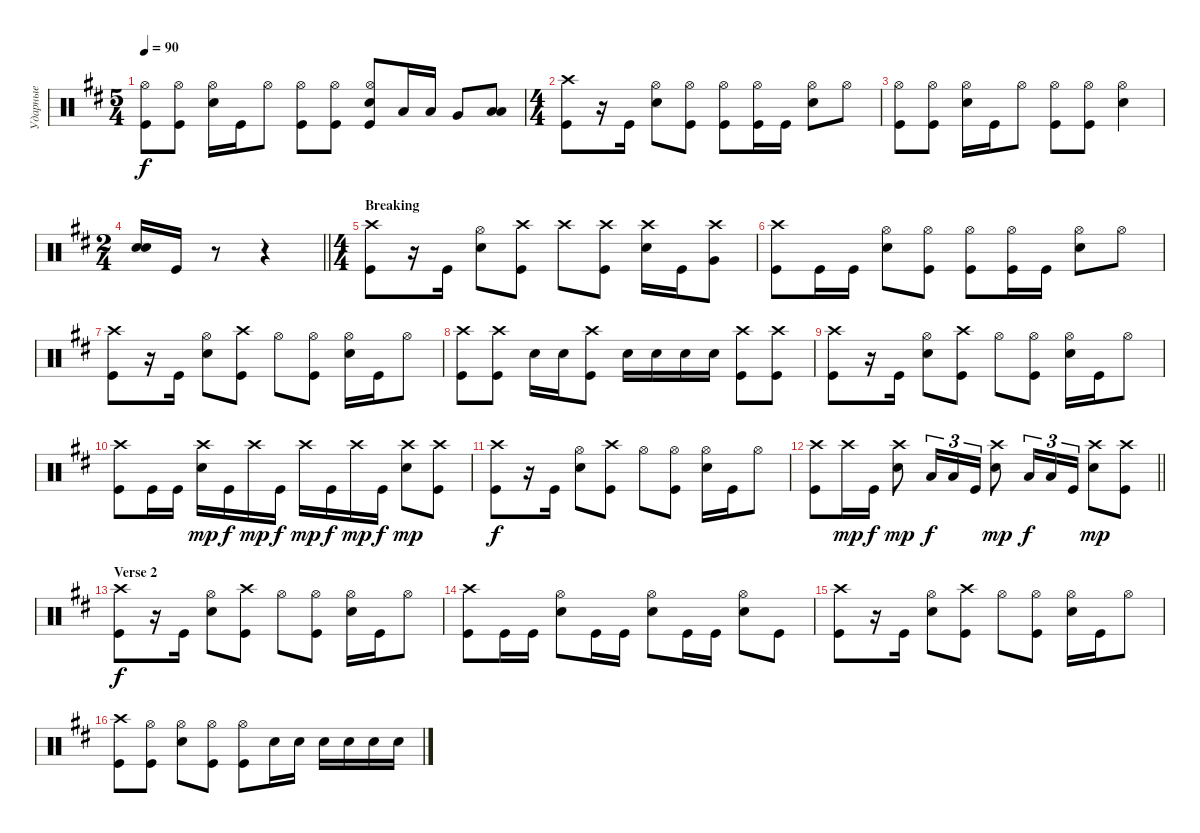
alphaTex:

\track ("Ударные" "Ударные") {instrument percussion}
\staff {score}
\articulation defaults
\ts (5 4)
\tempo 90
\clef neutral
\ks bminor
("Kick (hit)" "Hi-Hat (open)").8{dy f} ("Kick (hit)" "Hi-Hat (open)").8 ("Snare (hit) 2" "Hi-Hat (open)").16 "Kick (hit)".16 "Hi-Hat (open)".8 ("Kick (hit)" "Hi-Hat (open)").8 ("Kick (hit)" "Hi-Hat (open)").8 ("Snare (hit) 2" "Hi-Hat (open)" "Kick (hit)").8 "Low Tom (hit)".16 "Low Tom (hit)".16 "Very Low Tom (hit)".8 ("Low Floor Tom (hit)" "Low Floor Tom (hit)").8{bd 240} |
\ts (4 4)
("Kick (hit)" "Crash high (hit)").8 r.16 "Kick (hit)".16 ("Snare (hit) 2" "Hi-Hat (open)").8 ("Kick (hit)" "Hi-Hat (open)").8 ("Kick (hit)" "Hi-Hat (open)").8 ("Kick (hit)" "Hi-Hat (open)").16 "Kick (hit)".16 ("Snare (hit) 2" "Hi-Hat (open)").8 "Hi-Hat (open)".8 |
("Kick (hit)" "Hi-Hat (open)").8 ("Kick (hit)" "Hi-Hat (open)").8 ("Snare (hit) 2" "Hi-Hat (open)").16 "Kick (hit)".16 "Hi-Hat (open)".8 ("Kick (hit)" "Hi-Hat (open)").8 ("Kick (hit)" "Hi-Hat (open)").8 ("Snare (hit) 2" "Hi-Hat (open)").4 |
\ts (2 4)
\barLineRight lightlight
("Snare (hit) 2" "Snare (hit) 2").16{bd 240} "Kick (hit)".16 r.8 r.4 |
\ts (4 4)
\section ("" "Breaking")
("Kick (hit)" "Crash high (hit)").8 r.16 "Kick (hit)".16 ("Snare (hit) 2" "Hi-Hat (open)").8 ("Kick (hit)" "Crash high (hit)").8 "Crash high (hit)".8 ("Crash high (hit)" "Kick (hit)").8 ("Snare (hit) 2" "Crash high (hit)").16 "Kick (hit)".16 ("Crash high (hit)" "Very Low Tom (hit)").8 |
("Kick (hit)" "Crash high (hit)").8 "Kick (hit)".16 "Kick (hit)".16 ("Snare (hit) 2" "Hi-Hat (open)").8 ("Kick (hit)" "Hi-Hat (open)").8 ("Hi-Hat (open)" "Kick (hit)").8 ("Hi-Hat (open)" "Kick (hit)").16 "Kick (hit)".16 ("Hi-Hat (open)" "Snare (hit) 2").8 "Hi-Hat (open)".8 |
("Kick (hit)" "Crash high (hit)").8 r.16 "Kick (hit)".16 ("Snare (hit) 2" "Hi-Hat (open)").8 ("Kick (hit)" "Crash high (hit)").8 "Hi-Hat (open)".8 ("Hi-Hat (open)" "Kick (hit)").8 ("Snare (hit) 2" "Hi-Hat (open)").16 "Kick (hit)".16 "Hi-Hat (open)".8 |
("Kick (hit)" "Crash high (hit)").8 ("Kick (hit)" "Crash high (hit)").8 "Snare (hit) 2".16 "Snare (hit) 2".16 ("Kick (hit)" "Crash high (hit)").8 "Snare (hit) 2".16 "Snare (hit) 2".16 "Snare (hit) 2".16 "Snare (hit) 2".16 ("Kick (hit)" "Crash high (hit)").8 ("Kick (hit)" "Crash high (hit)").8 |
("Kick (hit)" "Crash high (hit)").8 r.16 "Kick (hit)".16 ("Snare (hit) 2" "Hi-Hat (open)").8 ("Kick (hit)" "Crash high (hit)").8 "Hi-Hat (open)".8 ("Hi-Hat (open)" "Kick (hit)").8 ("Snare (hit) 2" "Hi-Hat (open)").16 "Kick (hit)".16 "Hi-Hat (open)".8 |
("Kick (hit)" "Crash high (hit)").8 "Kick (hit)".16 "Kick (hit)".16 ("Snare (hit) 2" "Crash high (hit)").16{dy mp} "Kick (hit)".16{dy f} "Crash high (hit)".16{dy mp} "Kick (hit)".16{dy f} "Crash high (hit)".16{dy mp} "Kick (hit)".16{dy f} "Crash high (hit)".16{dy mp} "Kick (hit)".16{dy f} ("Snare (hit) 2" "Crash high (hit)").8{dy mp} ("Kick (hit)" "Crash high (hit)").8 |
("Kick (hit)" "Crash high (hit)").8{dy f} r.16 "Kick (hit)".16 ("Snare (hit) 2" "Hi-Hat (open)").8 ("Kick (hit)" "Crash high (hit)").8 "Hi-Hat (open)".8 ("Hi-Hat (open)" "Kick (hit)").8 ("Snare (hit) 2" "Hi-Hat (open)").16 "Kick (hit)".16 "Hi-Hat (open)".8 |
\barLineRight lightlight
("Kick (hit)" "Crash high (hit)").8 "Crash high (hit)".16{dy mp} "Kick (hit)".16{dy f} ("Snare (hit) 2" "Crash high (hit)").8{dy mp} "Low Floor Tom (hit)".16{tu (3 2) dy f} "Low Floor Tom (hit)".16{tu (3 2)} "Kick (hit)".16{tu (3 2)} ("Snare (hit) 2" "Crash high (hit)").8{dy mp} "Low Floor Tom (hit)".16{tu (3 2) dy f} "Low Floor Tom (hit)".16{tu (3 2)} "Kick (hit)".16{tu (3 2)} ("Snare (hit) 2" "Crash high (hit)").8{dy mp} ("Kick (hit)" "Crash high (hit)").8 |
\section ("" "Verse 2")
("Kick (hit)" "Crash high (hit)").8{dy f} r.16 "Kick (hit)".16 ("Snare (hit) 2" "Hi-Hat (open)").8 ("Kick (hit)" "Crash high (hit)").8 "Hi-Hat (open)".8 ("Hi-Hat (open)" "Kick (hit)").8 ("Hi-Hat (open)" "Snare (hit) 2").16 "Kick (hit)".16 "Hi-Hat (open)".8 |
("Kick (hit)" "Crash high (hit)").8 "Kick (hit)".16 "Kick (hit)".16 ("Snare (hit) 2" "Hi-Hat (open)").8 "Kick (hit)".16 "Kick (hit)".16 ("Snare (hit) 2" "Hi-Hat (open)").8 "Kick (hit)".16 "Kick (hit)".16 ("Snare (hit) 2" "Hi-Hat (open)").8 "Kick (hit)".8 |
("Kick (hit)" "Crash high (hit)").8 r.16 "Kick (hit)".16 ("Snare (hit) 2" "Hi-Hat (open)").8 ("Kick (hit)" "Crash high (hit)").8 "Hi-Hat (open)".8 ("Hi-Hat (open)" "Kick (hit)").8 ("Hi-Hat (open)" "Snare (hit) 2").16 "Kick (hit)".16 "Hi-Hat (open)".8 |
("Kick (hit)" "Crash high (hit)").8 ("Kick (hit)" "Hi-Hat (open)").8 ("Hi-Hat (open)" "Snare (hit) 2").8 ("Hi-Hat (open)" "Kick (hit)").8 ("Kick (hit)" "Hi-Hat (open)").8 "Snare (hit) 2".16 "Snare (hit) 2".16 "Snare (hit) 2".16 "Snare (hit) 2".16 "Snare (hit) 2".16 "Snare (hit) 2".16
